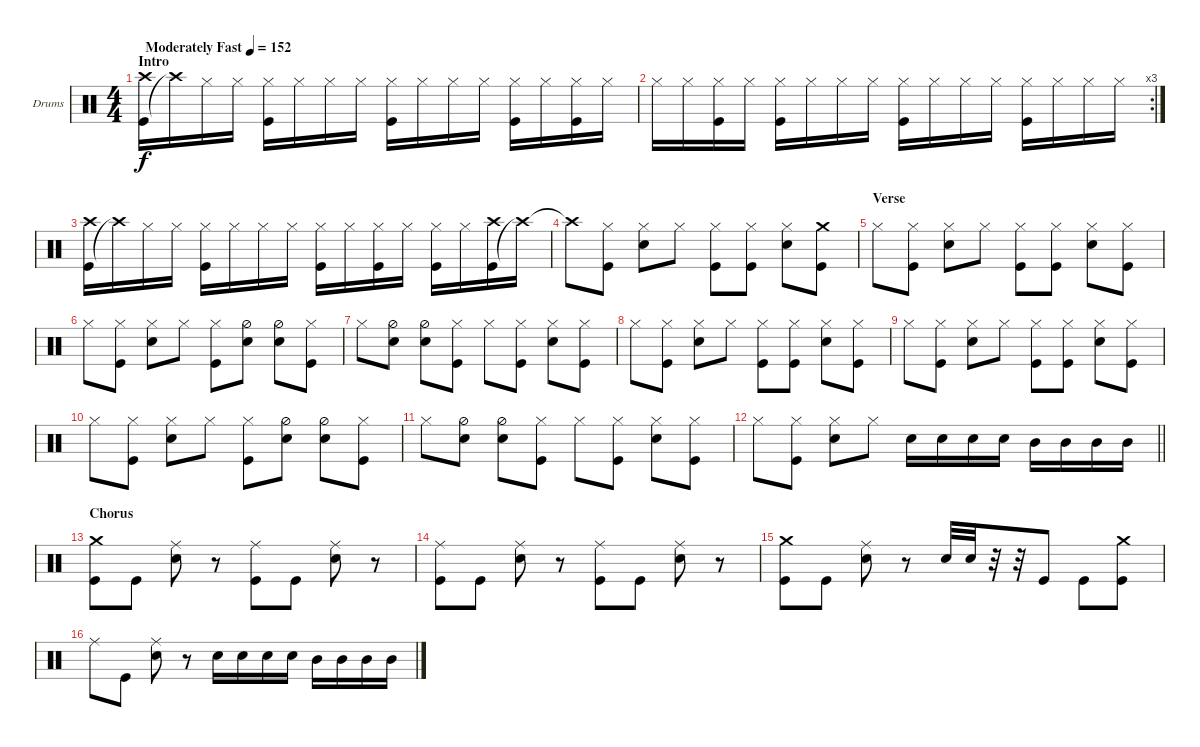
\bracketExtendMode groupsimilarinstruments
\firstSystemTrackNameOrientation horizontal
\otherSystemsTrackNameOrientation horizontal
\track ("Drumkit" "Drums") {instrument percussion}
\staff {score}
\articulation defaults
\ts (4 4)
\beaming (8 2 2 2 2)
\section ("" "Intro")
\tempo (152 "Moderately Fast")
\clef neutral
\ks c
("Kick (hit)" "Crash high (hit)").16{dy f} "Crash high (hit)"{t}.16 "Hi-Hat (closed)".16 "Hi-Hat (closed)".16 ("Kick (hit)" "Hi-Hat (closed)").16 "Hi-Hat (closed)".16 "Hi-Hat (closed)".16 "Hi-Hat (closed)".16 ("Kick (hit)" "Hi-Hat (closed)").16 "Hi-Hat (closed)".16 "Hi-Hat (closed)".16 "Hi-Hat (closed)".16 ("Kick (hit)" "Hi-Hat (closed)").16 "Hi-Hat (closed)".16 ("Kick (hit)" "Hi-Hat (closed)").16 "Hi-Hat (closed)".16 |
\rc 3 "Hi-Hat (closed)".16 "Hi-Hat (closed)".16
("Kick (hit)" "Hi-Hat (closed)").16 "Hi-Hat (closed)".16 ("Kick (hit)" "Hi-Hat (closed)").16 "Hi-Hat (closed)".16 "Hi-Hat (closed)".16 "Hi-Hat (closed)".16 ("Kick (hit)" "Hi-Hat (closed)").16 "Hi-Hat (closed)".16 "Hi-Hat (closed)".16 "Hi-Hat (closed)".16 ("Kick (hit)" "Hi-Hat (closed)").16 "Hi-Hat (closed)".16 "Hi-Hat (closed)".16 "Hi-Hat (closed)".16 |
("Kick (hit)" "Crash high (hit)").16 "Crash high (hit)"{t}.16 "Hi-Hat (closed)".16 "Hi-Hat (closed)".16 ("Kick (hit)" "Hi-Hat (closed)").16 "Hi-Hat (closed)".16 "Hi-Hat (closed)".16 "Hi-Hat (closed)".16 ("Kick (hit)" "Hi-Hat (closed)").16 "Hi-Hat (closed)".16 ("Kick (hit)" "Hi-Hat (closed)").16 "Hi-Hat (closed)".16 ("Kick (hit)" "Hi-Hat (closed)").16 "Hi-Hat (closed)".16 ("Kick (hit)" "Crash high (hit)").16 "Crash high (hit)"{t}.16 |
"Crash high (hit)"{t}.8 ("Kick (hit)" "Hi-Hat (closed)").8 ("Snare (hit) 2" "Hi-Hat (closed)").8 "Hi-Hat (closed)".8 ("Kick (hit)" "Hi-Hat (closed)").8 ("Kick (hit)" "Hi-Hat (closed)").8 ("Snare (hit) 2" "Hi-Hat (closed)").8 ("Crash medium (hit)" "Kick (hit)").8 |
\section ("" "Verse")
"Hi-Hat (closed)".8 ("Hi-Hat (closed)" "Kick (hit)").8 ("Snare (hit) 2" "Hi-Hat (closed)").8 "Hi-Hat (closed)".8 ("Kick (hit)" "Hi-Hat (closed)").8 ("Kick (hit)" "Hi-Hat (closed)").8 ("Snare (hit) 2" "Hi-Hat (closed)").8 ("Hi-Hat (closed)" "Kick (hit)").8 |
"Hi-Hat (closed)".8 ("Kick (hit)" "Hi-Hat (closed)").8 ("Snare (hit) 2" "Hi-Hat (closed)").8 "Hi-Hat (closed)".8 ("Hi-Hat (closed)" "Kick (hit)").8 ("Snare (hit) 2" "Hi-Hat (half)").8 ("Snare (hit) 2" "Hi-Hat (half)").8 ("Kick (hit)" "Hi-Hat (closed)").8 |
"Hi-Hat (closed)".8 ("Snare (hit) 2" "Hi-Hat (half)").8 ("Snare (hit) 2" "Hi-Hat (half)").8 ("Kick (hit)" "Hi-Hat (closed)").8 "Hi-Hat (closed)".8 ("Kick (hit)" "Hi-Hat (closed)").8 ("Snare (hit) 2" "Hi-Hat (closed)").8 ("Hi-Hat (closed)" "Kick (hit)").8 |
"Hi-Hat (closed)".8 ("Hi-Hat (closed)" "Kick (hit)").8 ("Snare (hit) 2" "Hi-Hat (closed)").8 "Hi-Hat (closed)".8 ("Kick (hit)" "Hi-Hat (closed)").8 ("Kick (hit)" "Hi-Hat (closed)").8 ("Snare (hit) 2" "Hi-Hat (closed)").8 ("Hi-Hat (closed)" "Kick (hit)").8 |
"Hi-Hat (closed)".8 ("Hi-Hat (closed)" "Kick (hit)").8 ("Snare (hit) 2" "Hi-Hat (closed)").8 "Hi-Hat (closed)".8 ("Kick (hit)" "Hi-Hat (closed)").8 ("Kick (hit)" "Hi-Hat (closed)").8 ("Snare (hit) 2" "Hi-Hat (closed)").8 ("Hi-Hat (closed)" "Kick (hit)").8 |
"Hi-Hat (closed)".8 ("Kick (hit)" "Hi-Hat (closed)").8 ("Snare (hit) 2" "Hi-Hat (closed)").8 "Hi-Hat (closed)".8 ("Hi-Hat (closed)" "Kick (hit)").8 ("Snare (hit) 2" "Hi-Hat (half)").8 ("Snare (hit) 2" "Hi-Hat (half)").8 ("Kick (hit)" "Hi-Hat (closed)").8 |
"Hi-Hat (closed)".8 ("Snare (hit) 2" "Hi-Hat (half)").8 ("Snare (hit) 2" "Hi-Hat (half)").8 ("Kick (hit)" "Hi-Hat (closed)").8 "Hi-Hat (closed)".8 ("Kick (hit)" "Hi-Hat (closed)").8 ("Snare (hit) 2" "Hi-Hat (closed)").8 ("Hi-Hat (closed)" "Kick (hit)").8 |
\barLineRight lightlight "Hi-Hat (closed)".8
("Hi-Hat (closed)" "Kick (hit)").8 ("Snare (hit) 2" "Hi-Hat (closed)").8 "Hi-Hat (closed)".8 "Snare (hit) 2".16 "Snare (hit) 2".16 "Snare (hit) 2".16 "Snare (hit) 2".16 "Mid Tom (hit)".16 "Mid Tom (hit)".16 "Mid Tom (hit)".16 "Mid Tom (hit)".16 |
\section ("" "Chorus")
("Kick (hit)" "Crash medium (hit)").8 "Kick (hit)".8 ("Snare (hit) 2" "Ride (middle)").8 r.8 ("Kick (hit)" "Ride (middle)").8 "Kick (hit)".8 ("Snare (hit) 2" "Ride (middle)").8 r.8 |
("Kick (hit)" "Ride (middle)").8 "Kick (hit)".8 ("Snare (hit) 2" "Ride (middle)").8 r.8 ("Kick (hit)" "Ride (middle)").8 "Kick (hit)".8 ("Snare (hit) 2" "Ride (middle)").8 r.8 |
("Kick (hit)" "Crash medium (hit)").8 "Kick (hit)".8 ("Snare (hit) 2" "Ride (middle)").8 r.8 "Snare (hit) 2".32 "Snare (hit) 2".32 r.32 r.32 "Kick (hit)".8 "Kick (hit)".8 ("Kick (hit)" "Crash medium (hit)").8 |
"Ride (middle)".8 "Kick (hit)".8 ("Snare (hit) 2" "Ride (middle)").8 r.8 "Snare (hit) 2".16 "Snare (hit) 2".16 "Snare (hit) 2".16 "Snare (hit) 2".16 "Mid Tom (hit)".16 "Mid Tom (hit)".16 "Mid Tom (hit)".16 "Mid Tom (hit)".16
